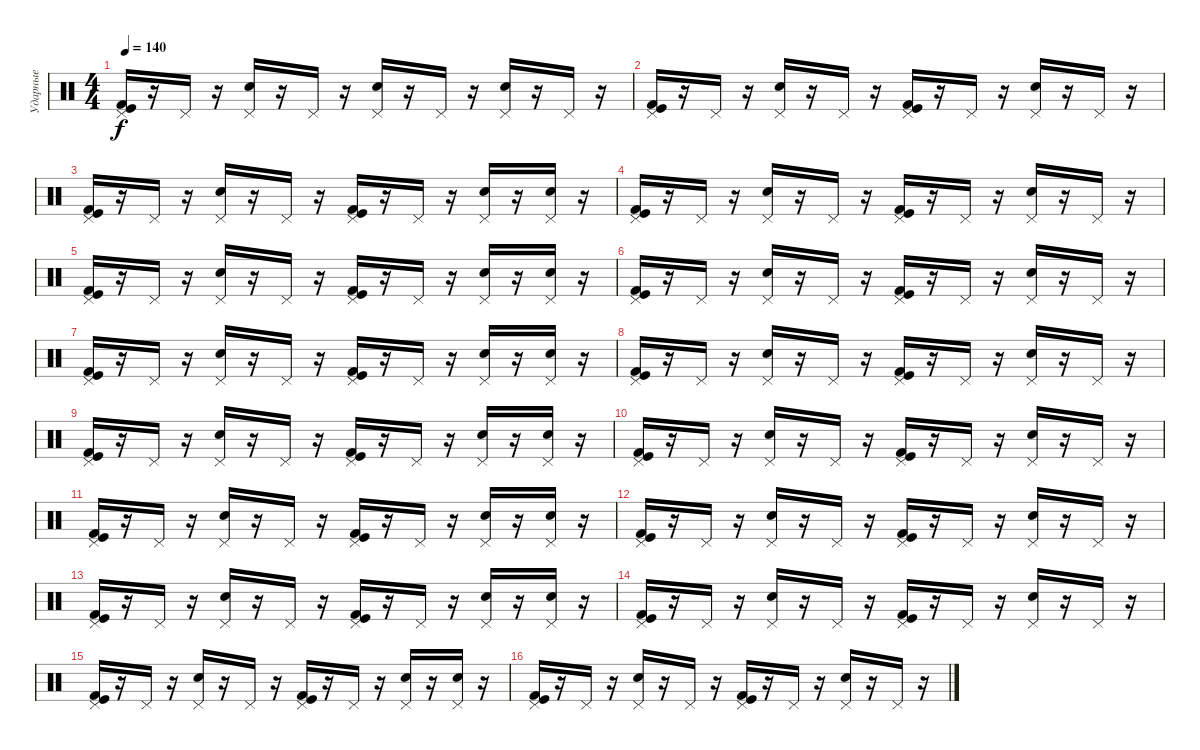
\track ("Ударные" "Ударные") {instrument percussion}
\staff {score}
\articulation defaults
\ts (4 4)
\tempo 140
\clef neutral
\ks c
("Kick (hit) 2" "Kick (hit)" "Pedal Hi-Hat (hit)").16{dy f} r.16 "Pedal Hi-Hat (hit)".16 r.16 ("Electric Snare (hit)" "Pedal Hi-Hat (hit)").16 r.16 "Pedal Hi-Hat (hit)".16 r.16 ("Snare (hit) 2" "Pedal Hi-Hat (hit)").16 r.16 "Pedal Hi-Hat (hit)".16 r.16 ("Snare (hit) 2" "Pedal Hi-Hat (hit)").16 r.16 "Pedal Hi-Hat (hit)".16 r.16 |
("Kick (hit) 2" "Kick (hit)" "Pedal Hi-Hat (hit)").16 r.16 "Pedal Hi-Hat (hit)".16 r.16 ("Snare (hit) 2" "Pedal Hi-Hat (hit)").16 r.16 "Pedal Hi-Hat (hit)".16 r.16 ("Kick (hit) 2" "Kick (hit)" "Pedal Hi-Hat (hit)").16 r.16 "Pedal Hi-Hat (hit)".16 r.16 ("Snare (hit) 2" "Pedal Hi-Hat (hit)").16 r.16 "Pedal Hi-Hat (hit)".16 r.16 |
("Kick (hit) 2" "Kick (hit)" "Pedal Hi-Hat (hit)").16 r.16 "Pedal Hi-Hat (hit)".16 r.16 ("Snare (hit) 2" "Pedal Hi-Hat (hit)").16 r.16 "Pedal Hi-Hat (hit)".16 r.16 ("Kick (hit) 2" "Kick (hit)" "Pedal Hi-Hat (hit)").16 r.16 "Pedal Hi-Hat (hit)".16 r.16 ("Snare (hit) 2" "Pedal Hi-Hat (hit)").16 r.16 ("Snare (hit) 2" "Pedal Hi-Hat (hit)").16 r.16 |
("Kick (hit) 2" "Kick (hit)" "Pedal Hi-Hat (hit)").16 r.16 "Pedal Hi-Hat (hit)".16 r.16 ("Snare (hit) 2" "Pedal Hi-Hat (hit)").16 r.16 "Pedal Hi-Hat (hit)".16 r.16 ("Kick (hit) 2" "Kick (hit)" "Pedal Hi-Hat (hit)").16 r.16 "Pedal Hi-Hat (hit)".16 r.16 ("Snare (hit) 2" "Pedal Hi-Hat (hit)").16 r.16 "Pedal Hi-Hat (hit)".16 r.16 |
("Kick (hit) 2" "Kick (hit)" "Pedal Hi-Hat (hit)").16 r.16 "Pedal Hi-Hat (hit)".16 r.16 ("Snare (hit) 2" "Pedal Hi-Hat (hit)").16 r.16 "Pedal Hi-Hat (hit)".16 r.16 ("Kick (hit) 2" "Kick (hit)" "Pedal Hi-Hat (hit)").16 r.16 "Pedal Hi-Hat (hit)".16 r.16 ("Snare (hit) 2" "Pedal Hi-Hat (hit)").16 r.16 ("Snare (hit) 2" "Pedal Hi-Hat (hit)").16 r.16 |
("Kick (hit) 2" "Kick (hit)" "Pedal Hi-Hat (hit)").16 r.16 "Pedal Hi-Hat (hit)".16 r.16 ("Snare (hit) 2" "Pedal Hi-Hat (hit)").16 r.16 "Pedal Hi-Hat (hit)".16 r.16 ("Kick (hit) 2" "Kick (hit)" "Pedal Hi-Hat (hit)").16 r.16 "Pedal Hi-Hat (hit)".16 r.16 ("Snare (hit) 2" "Pedal Hi-Hat (hit)").16 r.16 "Pedal Hi-Hat (hit)".16 r.16 |
("Kick (hit) 2" "Kick (hit)" "Pedal Hi-Hat (hit)").16 r.16 "Pedal Hi-Hat (hit)".16 r.16 ("Snare (hit) 2" "Pedal Hi-Hat (hit)").16 r.16 "Pedal Hi-Hat (hit)".16 r.16 ("Kick (hit) 2" "Kick (hit)" "Pedal Hi-Hat (hit)").16 r.16 "Pedal Hi-Hat (hit)".16 r.16 ("Snare (hit) 2" "Pedal Hi-Hat (hit)").16 r.16 ("Snare (hit) 2" "Pedal Hi-Hat (hit)").16 r.16 |
("Kick (hit) 2" "Kick (hit)" "Pedal Hi-Hat (hit)").16 r.16 "Pedal Hi-Hat (hit)".16 r.16 ("Snare (hit) 2" "Pedal Hi-Hat (hit)").16 r.16 "Pedal Hi-Hat (hit)".16 r.16 ("Kick (hit) 2" "Kick (hit)" "Pedal Hi-Hat (hit)").16 r.16 "Pedal Hi-Hat (hit)".16 r.16 ("Snare (hit) 2" "Pedal Hi-Hat (hit)").16 r.16 "Pedal Hi-Hat (hit)".16 r.16 |
("Kick (hit) 2" "Kick (hit)" "Pedal Hi-Hat (hit)").16 r.16 "Pedal Hi-Hat (hit)".16 r.16 ("Snare (hit) 2" "Pedal Hi-Hat (hit)").16 r.16 "Pedal Hi-Hat (hit)".16 r.16 ("Kick (hit) 2" "Kick (hit)" "Pedal Hi-Hat (hit)").16 r.16 "Pedal Hi-Hat (hit)".16 r.16 ("Snare (hit) 2" "Pedal Hi-Hat (hit)").16 r.16 ("Snare (hit) 2" "Pedal Hi-Hat (hit)").16 r.16 |
("Kick (hit) 2" "Kick (hit)" "Pedal Hi-Hat (hit)").16 r.16 "Pedal Hi-Hat (hit)".16 r.16 ("Snare (hit) 2" "Pedal Hi-Hat (hit)").16 r.16 "Pedal Hi-Hat (hit)".16 r.16 ("Kick (hit) 2" "Kick (hit)" "Pedal Hi-Hat (hit)").16 r.16 "Pedal Hi-Hat (hit)".16 r.16 ("Snare (hit) 2" "Pedal Hi-Hat (hit)").16 r.16 "Pedal Hi-Hat (hit)".16 r.16 |
("Kick (hit) 2" "Kick (hit)" "Pedal Hi-Hat (hit)").16 r.16 "Pedal Hi-Hat (hit)".16 r.16 ("Snare (hit) 2" "Pedal Hi-Hat (hit)").16 r.16 "Pedal Hi-Hat (hit)".16 r.16 ("Kick (hit) 2" "Kick (hit)" "Pedal Hi-Hat (hit)").16 r.16 "Pedal Hi-Hat (hit)".16 r.16 ("Snare (hit) 2" "Pedal Hi-Hat (hit)").16 r.16 ("Snare (hit) 2" "Pedal Hi-Hat (hit)").16 r.16 |
("Kick (hit) 2" "Kick (hit)" "Pedal Hi-Hat (hit)").16 r.16 "Pedal Hi-Hat (hit)".16 r.16 ("Snare (hit) 2" "Pedal Hi-Hat (hit)").16 r.16 "Pedal Hi-Hat (hit)".16 r.16 ("Kick (hit) 2" "Kick (hit)" "Pedal Hi-Hat (hit)").16 r.16 "Pedal Hi-Hat (hit)".16 r.16 ("Snare (hit) 2" "Pedal Hi-Hat (hit)").16 r.16 "Pedal Hi-Hat (hit)".16 r.16 |
("Kick (hit) 2" "Kick (hit)" "Pedal Hi-Hat (hit)").16 r.16 "Pedal Hi-Hat (hit)".16 r.16 ("Snare (hit) 2" "Pedal Hi-Hat (hit)").16 r.16 "Pedal Hi-Hat (hit)".16 r.16 ("Kick (hit) 2" "Kick (hit)" "Pedal Hi-Hat (hit)").16 r.16 "Pedal Hi-Hat (hit)".16 r.16 ("Snare (hit) 2" "Pedal Hi-Hat (hit)").16 r.16 ("Snare (hit) 2" "Pedal Hi-Hat (hit)").16 r.16 |
("Kick (hit) 2" "Kick (hit)" "Pedal Hi-Hat (hit)").16 r.16 "Pedal Hi-Hat (hit)".16 r.16 ("Snare (hit) 2" "Pedal Hi-Hat (hit)").16 r.16 "Pedal Hi-Hat (hit)".16 r.16 ("Kick (hit) 2" "Kick (hit)" "Pedal Hi-Hat (hit)").16 r.16 "Pedal Hi-Hat (hit)".16 r.16 ("Snare (hit) 2" "Pedal Hi-Hat (hit)").16 r.16 "Pedal Hi-Hat (hit)".16 r.16 |
("Kick (hit) 2" "Kick (hit)" "Pedal Hi-Hat (hit)").16 r.16 "Pedal Hi-Hat (hit)".16 r.16 ("Snare (hit) 2" "Pedal Hi-Hat (hit)").16 r.16 "Pedal Hi-Hat (hit)".16 r.16 ("Kick (hit) 2" "Kick (hit)" "Pedal Hi-Hat (hit)").16 r.16 "Pedal Hi-Hat (hit)".16 r.16 ("Snare (hit) 2" "Pedal Hi-Hat (hit)").16 r.16 ("Snare (hit) 2" "Pedal Hi-Hat (hit)").16 r.16 |
("Kick (hit) 2" "Kick (hit)" "Pedal Hi-Hat (hit)").16 r.16 "Pedal Hi-Hat (hit)".16 r.16 ("Snare (hit) 2" "Pedal Hi-Hat (hit)").16 r.16 "Pedal Hi-Hat (hit)".16 r.16 ("Kick (hit) 2" "Kick (hit)" "Pedal Hi-Hat (hit)").16 r.16 "Pedal Hi-Hat (hit)".16 r.16 ("Snare (hit) 2" "Pedal Hi-Hat (hit)").16 r.16 "Pedal Hi-Hat (hit)".16 r.16
